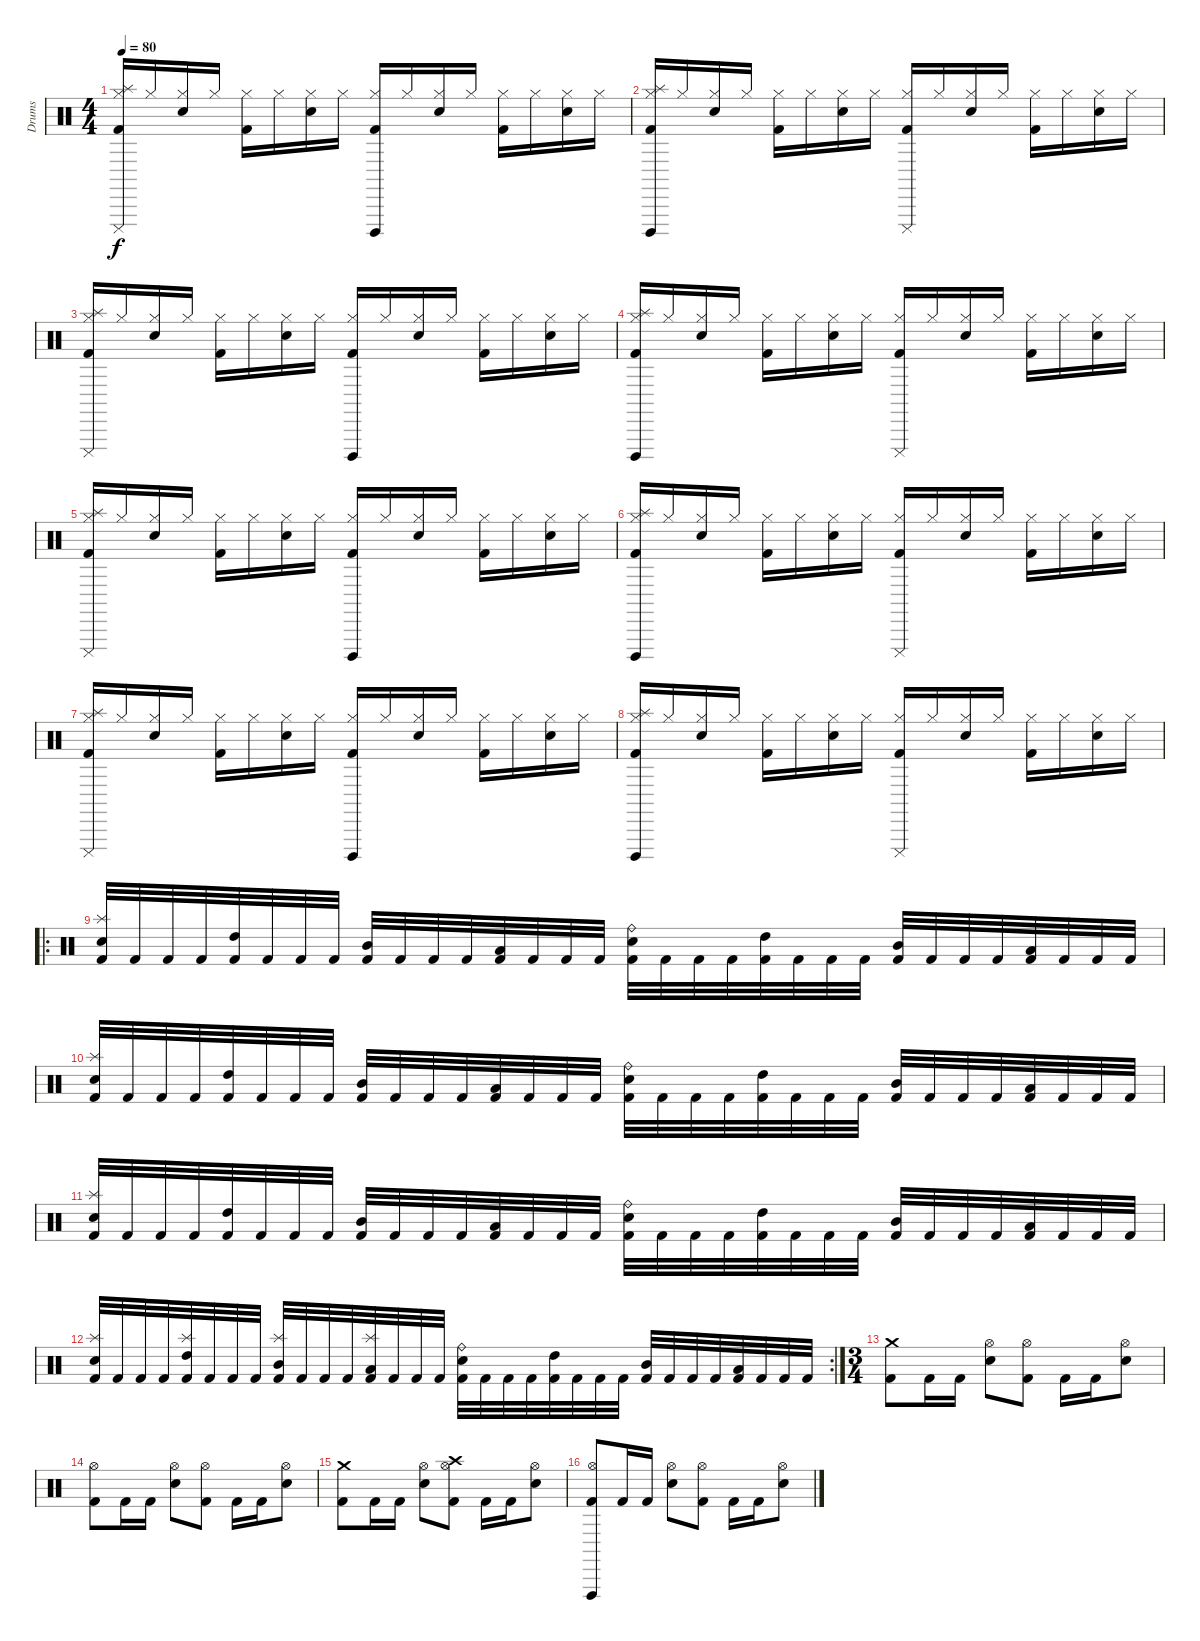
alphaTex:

\track ("Drums" "Drums") {instrument percussion}
\staff {score}
\articulation defaults
\ts (4 4)
\tempo 80
\clef neutral
\ks c
("Kick (hit) 2" "Hi-Hat (closed)" "Splash (hit)" "Cuica (mute)").16{dy f} "Hi-Hat (closed)".16 ("Electric Snare (hit)" "Hi-Hat (closed)").16 "Hi-Hat (closed)".16 ("Kick (hit) 2" "Hi-Hat (closed)").16 "Hi-Hat (closed)".16 ("Electric Snare (hit)" "Hi-Hat (closed)").16 "Hi-Hat (closed)".16 ("Kick (hit) 2" "Hi-Hat (closed)" "Cuica (open)").16 "Hi-Hat (closed)".16 ("Electric Snare (hit)" "Hi-Hat (closed)").16 "Hi-Hat (closed)".16 ("Kick (hit) 2" "Hi-Hat (closed)").16 "Hi-Hat (closed)".16 ("Electric Snare (hit)" "Hi-Hat (closed)").16 "Hi-Hat (closed)".16 |
("Kick (hit) 2" "Hi-Hat (closed)" "Splash (hit)" "Cuica (open)").16 "Hi-Hat (closed)".16 ("Electric Snare (hit)" "Hi-Hat (closed)").16 "Hi-Hat (closed)".16 ("Kick (hit) 2" "Hi-Hat (closed)").16 "Hi-Hat (closed)".16 ("Electric Snare (hit)" "Hi-Hat (closed)").16 "Hi-Hat (closed)".16 ("Kick (hit) 2" "Hi-Hat (closed)" "Cuica (mute)").16 "Hi-Hat (closed)".16 ("Electric Snare (hit)" "Hi-Hat (closed)").16 "Hi-Hat (closed)".16 ("Kick (hit) 2" "Hi-Hat (closed)").16 "Hi-Hat (closed)".16 ("Electric Snare (hit)" "Hi-Hat (closed)").16 "Hi-Hat (closed)".16 |
("Kick (hit) 2" "Hi-Hat (closed)" "Splash (hit)" "Cuica (mute)").16 "Hi-Hat (closed)".16 ("Electric Snare (hit)" "Hi-Hat (closed)").16 "Hi-Hat (closed)".16 ("Kick (hit) 2" "Hi-Hat (closed)").16 "Hi-Hat (closed)".16 ("Electric Snare (hit)" "Hi-Hat (closed)").16 "Hi-Hat (closed)".16 ("Kick (hit) 2" "Hi-Hat (closed)" "Cuica (open)").16 "Hi-Hat (closed)".16 ("Electric Snare (hit)" "Hi-Hat (closed)").16 "Hi-Hat (closed)".16 ("Kick (hit) 2" "Hi-Hat (closed)").16 "Hi-Hat (closed)".16 ("Electric Snare (hit)" "Hi-Hat (closed)").16 "Hi-Hat (closed)".16 |
("Kick (hit) 2" "Hi-Hat (closed)" "Splash (hit)" "Cuica (open)").16 "Hi-Hat (closed)".16 ("Electric Snare (hit)" "Hi-Hat (closed)").16 "Hi-Hat (closed)".16 ("Kick (hit) 2" "Hi-Hat (closed)").16 "Hi-Hat (closed)".16 ("Electric Snare (hit)" "Hi-Hat (closed)").16 "Hi-Hat (closed)".16 ("Kick (hit) 2" "Hi-Hat (closed)" "Cuica (mute)").16 "Hi-Hat (closed)".16 ("Electric Snare (hit)" "Hi-Hat (closed)").16 "Hi-Hat (closed)".16 ("Kick (hit) 2" "Hi-Hat (closed)").16 "Hi-Hat (closed)".16 ("Electric Snare (hit)" "Hi-Hat (closed)").16 "Hi-Hat (closed)".16 |
("Kick (hit) 2" "Hi-Hat (closed)" "Splash (hit)" "Cuica (mute)").16 "Hi-Hat (closed)".16 ("Electric Snare (hit)" "Hi-Hat (closed)").16 "Hi-Hat (closed)".16 ("Kick (hit) 2" "Hi-Hat (closed)").16 "Hi-Hat (closed)".16 ("Electric Snare (hit)" "Hi-Hat (closed)").16 "Hi-Hat (closed)".16 ("Kick (hit) 2" "Hi-Hat (closed)" "Cuica (open)").16 "Hi-Hat (closed)".16 ("Electric Snare (hit)" "Hi-Hat (closed)").16 "Hi-Hat (closed)".16 ("Kick (hit) 2" "Hi-Hat (closed)").16 "Hi-Hat (closed)".16 ("Electric Snare (hit)" "Hi-Hat (closed)").16 "Hi-Hat (closed)".16 |
("Kick (hit) 2" "Hi-Hat (closed)" "Splash (hit)" "Cuica (open)").16 "Hi-Hat (closed)".16 ("Electric Snare (hit)" "Hi-Hat (closed)").16 "Hi-Hat (closed)".16 ("Kick (hit) 2" "Hi-Hat (closed)").16 "Hi-Hat (closed)".16 ("Electric Snare (hit)" "Hi-Hat (closed)").16 "Hi-Hat (closed)".16 ("Kick (hit) 2" "Hi-Hat (closed)" "Cuica (mute)").16 "Hi-Hat (closed)".16 ("Electric Snare (hit)" "Hi-Hat (closed)").16 "Hi-Hat (closed)".16 ("Kick (hit) 2" "Hi-Hat (closed)").16 "Hi-Hat (closed)".16 ("Electric Snare (hit)" "Hi-Hat (closed)").16 "Hi-Hat (closed)".16 |
("Kick (hit) 2" "Hi-Hat (closed)" "Splash (hit)" "Cuica (mute)").16 "Hi-Hat (closed)".16 ("Electric Snare (hit)" "Hi-Hat (closed)").16 "Hi-Hat (closed)".16 ("Kick (hit) 2" "Hi-Hat (closed)").16 "Hi-Hat (closed)".16 ("Electric Snare (hit)" "Hi-Hat (closed)").16 "Hi-Hat (closed)".16 ("Kick (hit) 2" "Hi-Hat (closed)" "Cuica (open)").16 "Hi-Hat (closed)".16 ("Electric Snare (hit)" "Hi-Hat (closed)").16 "Hi-Hat (closed)".16 ("Kick (hit) 2" "Hi-Hat (closed)").16 "Hi-Hat (closed)".16 ("Electric Snare (hit)" "Hi-Hat (closed)").16 "Hi-Hat (closed)".16 |
("Kick (hit) 2" "Hi-Hat (closed)" "Splash (hit)" "Cuica (open)").16 "Hi-Hat (closed)".16 ("Electric Snare (hit)" "Hi-Hat (closed)").16 "Hi-Hat (closed)".16 ("Kick (hit) 2" "Hi-Hat (closed)").16 "Hi-Hat (closed)".16 ("Electric Snare (hit)" "Hi-Hat (closed)").16 "Hi-Hat (closed)".16 ("Kick (hit) 2" "Hi-Hat (closed)" "Cuica (mute)").16 "Hi-Hat (closed)".16 ("Electric Snare (hit)" "Hi-Hat (closed)").16 "Hi-Hat (closed)".16 ("Kick (hit) 2" "Hi-Hat (closed)").16 "Hi-Hat (closed)".16 ("Electric Snare (hit)" "Hi-Hat (closed)").16 "Hi-Hat (closed)".16 |
\ro
("Kick (hit) 2" "Electric Snare (hit)" "Splash (hit)").32 "Kick (hit) 2".32 "Kick (hit) 2".32 "Kick (hit) 2".32 ("Kick (hit) 2" "High Tom (hit)").32 "Kick (hit) 2".32 "Kick (hit) 2".32 "Kick (hit) 2".32 ("Kick (hit) 2" "Mid Tom (hit)").32 "Kick (hit) 2".32 "Kick (hit) 2".32 "Kick (hit) 2".32 ("Kick (hit) 2" "Low Tom (hit)").32 "Kick (hit) 2".32 "Kick (hit) 2".32 "Kick (hit) 2".32 ("Kick (hit) 2" "Electric Snare (hit)" "Ride (bell)").32 "Kick (hit) 2".32 "Kick (hit) 2".32 "Kick (hit) 2".32 ("Kick (hit) 2" "High Tom (hit)").32 "Kick (hit) 2".32 "Kick (hit) 2".32 "Kick (hit) 2".32 ("Kick (hit) 2" "Mid Tom (hit)").32 "Kick (hit) 2".32 "Kick (hit) 2".32 "Kick (hit) 2".32 ("Kick (hit) 2" "Low Tom (hit)").32 "Kick (hit) 2".32 "Kick (hit) 2".32 "Kick (hit) 2".32 |
("Kick (hit) 2" "Electric Snare (hit)" "Splash (hit)").32 "Kick (hit) 2".32 "Kick (hit) 2".32 "Kick (hit) 2".32 ("Kick (hit) 2" "High Tom (hit)").32 "Kick (hit) 2".32 "Kick (hit) 2".32 "Kick (hit) 2".32 ("Kick (hit) 2" "Mid Tom (hit)").32 "Kick (hit) 2".32 "Kick (hit) 2".32 "Kick (hit) 2".32 ("Kick (hit) 2" "Low Tom (hit)").32 "Kick (hit) 2".32 "Kick (hit) 2".32 "Kick (hit) 2".32 ("Kick (hit) 2" "Electric Snare (hit)" "Ride (bell)").32 "Kick (hit) 2".32 "Kick (hit) 2".32 "Kick (hit) 2".32 ("Kick (hit) 2" "High Tom (hit)").32 "Kick (hit) 2".32 "Kick (hit) 2".32 "Kick (hit) 2".32 ("Kick (hit) 2" "Mid Tom (hit)").32 "Kick (hit) 2".32 "Kick (hit) 2".32 "Kick (hit) 2".32 ("Kick (hit) 2" "Low Tom (hit)").32 "Kick (hit) 2".32 "Kick (hit) 2".32 "Kick (hit) 2".32 |
("Kick (hit) 2" "Electric Snare (hit)" "Splash (hit)").32 "Kick (hit) 2".32 "Kick (hit) 2".32 "Kick (hit) 2".32 ("Kick (hit) 2" "High Tom (hit)").32 "Kick (hit) 2".32 "Kick (hit) 2".32 "Kick (hit) 2".32 ("Kick (hit) 2" "Mid Tom (hit)").32 "Kick (hit) 2".32 "Kick (hit) 2".32 "Kick (hit) 2".32 ("Kick (hit) 2" "Low Tom (hit)").32 "Kick (hit) 2".32 "Kick (hit) 2".32 "Kick (hit) 2".32 ("Kick (hit) 2" "Electric Snare (hit)" "Ride (bell)").32 "Kick (hit) 2".32 "Kick (hit) 2".32 "Kick (hit) 2".32 ("Kick (hit) 2" "High Tom (hit)").32 "Kick (hit) 2".32 "Kick (hit) 2".32 "Kick (hit) 2".32 ("Kick (hit) 2" "Mid Tom (hit)").32 "Kick (hit) 2".32 "Kick (hit) 2".32 "Kick (hit) 2".32 ("Kick (hit) 2" "Low Tom (hit)").32 "Kick (hit) 2".32 "Kick (hit) 2".32 "Kick (hit) 2".32 |
\rc 2
("Kick (hit) 2" "Electric Snare (hit)" "Splash (hit)").32 "Kick (hit) 2".32 "Kick (hit) 2".32 "Kick (hit) 2".32 ("Kick (hit) 2" "High Tom (hit)" "Splash (hit)").32 "Kick (hit) 2".32 "Kick (hit) 2".32 "Kick (hit) 2".32 ("Kick (hit) 2" "Mid Tom (hit)" "Splash (hit)").32 "Kick (hit) 2".32 "Kick (hit) 2".32 "Kick (hit) 2".32 ("Kick (hit) 2" "Low Tom (hit)" "Splash (hit)").32 "Kick (hit) 2".32 "Kick (hit) 2".32 "Kick (hit) 2".32 ("Kick (hit) 2" "Electric Snare (hit)" "Ride (bell)").32 "Kick (hit) 2".32 "Kick (hit) 2".32 "Kick (hit) 2".32 ("Kick (hit) 2" "High Tom (hit)").32 "Kick (hit) 2".32 "Kick (hit) 2".32 "Kick (hit) 2".32 ("Kick (hit) 2" "Mid Tom (hit)").32 "Kick (hit) 2".32 "Kick (hit) 2".32 "Kick (hit) 2".32 ("Kick (hit) 2" "Low Tom (hit)").32 "Kick (hit) 2".32 "Kick (hit) 2".32 "Kick (hit) 2".32 |
\ts (3 4)
("Kick (hit) 2" "Crash medium (hit)").8 "Kick (hit) 2".16 "Kick (hit) 2".16 ("Electric Snare (hit)" "Hi-Hat (open)").8 ("Kick (hit) 2" "Hi-Hat (open)").8 "Kick (hit) 2".16 "Kick (hit) 2".16 ("Electric Snare (hit)" "Hi-Hat (open)").8 |
("Kick (hit) 2" "Hi-Hat (open)").8 "Kick (hit) 2".16 "Kick (hit) 2".16 ("Electric Snare (hit)" "Hi-Hat (open)").8 ("Kick (hit) 2" "Hi-Hat (open)").8 "Kick (hit) 2".16 "Kick (hit) 2".16 ("Electric Snare (hit)" "Hi-Hat (open)").8 |
("Kick (hit) 2" "Crash medium (hit)").8 "Kick (hit) 2".16 "Kick (hit) 2".16 ("Electric Snare (hit)" "Hi-Hat (open)").8 ("Kick (hit) 2" "Hi-Hat (open)" "Crash high (hit)").8 "Kick (hit) 2".16 "Kick (hit) 2".16 ("Electric Snare (hit)" "Hi-Hat (open)").8 |
("Kick (hit) 2" "Hi-Hat (open)" "Vibraslap (hit)").8 "Kick (hit) 2".16 "Kick (hit) 2".16 ("Electric Snare (hit)" "Hi-Hat (open)").8 ("Kick (hit) 2" "Hi-Hat (open)").8 "Kick (hit) 2".16 "Kick (hit) 2".16 ("Electric Snare (hit)" "Hi-Hat (open)").8
